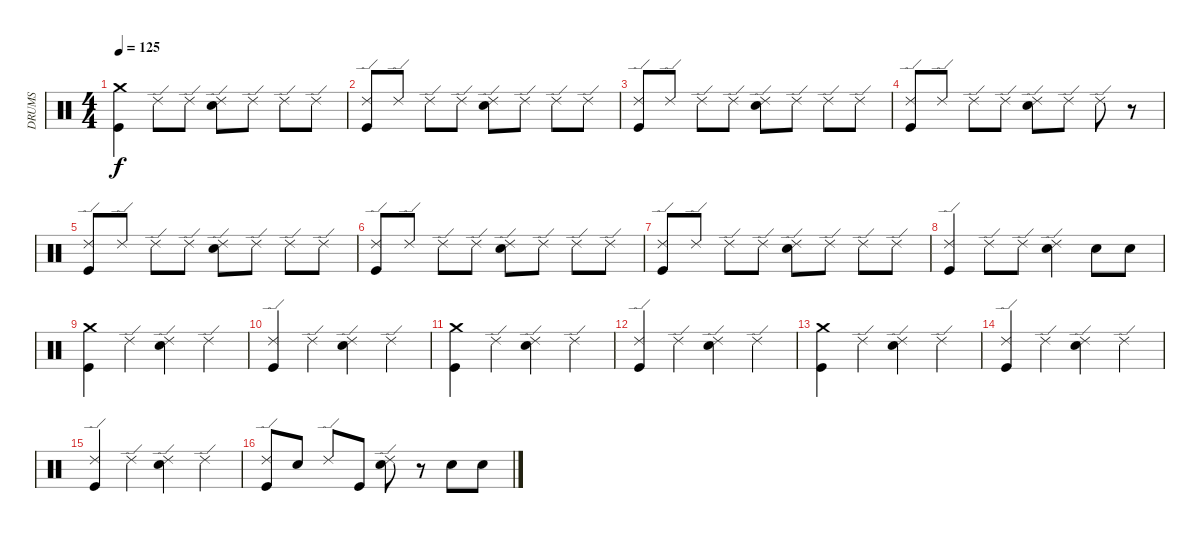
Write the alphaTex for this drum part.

\track ("DRUMS" "DRUMS") {instrument percussion}
\staff {score}
\articulation defaults
\ts (4 4)
\tempo 125
\clef neutral
\ks c
("Crash medium (hit)" "Kick (hit)").4{dy f} "Ride (edge) 2".8 "Ride (edge) 2".8 ("Ride (edge) 2" "Snare (hit) 2").8 "Ride (edge) 2".8 "Ride (edge) 2".8 "Ride (edge) 2".8 |
("Ride (edge) 2" "Kick (hit)").8 "Ride (edge) 2".8 "Ride (edge) 2".8 "Ride (edge) 2".8 ("Ride (edge) 2" "Snare (hit) 2").8 "Ride (edge) 2".8 "Ride (edge) 2".8 "Ride (edge) 2".8 |
("Kick (hit)" "Ride (edge) 2").8 "Ride (edge) 2".8 "Ride (edge) 2".8 "Ride (edge) 2".8 ("Snare (hit) 2" "Ride (edge) 2").8 "Ride (edge) 2".8 "Ride (edge) 2".8 "Ride (edge) 2".8 |
("Ride (edge) 2" "Kick (hit)").8 "Ride (edge) 2".8 "Ride (edge) 2".8 "Ride (edge) 2".8 ("Ride (edge) 2" "Snare (hit) 2").8 "Ride (edge) 2".8 "Ride (edge) 2".8 r.8 |
("Kick (hit)" "Ride (edge) 2").8 "Ride (edge) 2".8 "Ride (edge) 2".8 "Ride (edge) 2".8 ("Snare (hit) 2" "Ride (edge) 2").8 "Ride (edge) 2".8 "Ride (edge) 2".8 "Ride (edge) 2".8 |
("Kick (hit)" "Ride (edge) 2").8 "Ride (edge) 2".8 "Ride (edge) 2".8 "Ride (edge) 2".8 ("Snare (hit) 2" "Ride (edge) 2").8 "Ride (edge) 2".8 "Ride (edge) 2".8 "Ride (edge) 2".8 |
("Kick (hit)" "Ride (edge) 2").8 "Ride (edge) 2".8 "Ride (edge) 2".8 "Ride (edge) 2".8 ("Snare (hit) 2" "Ride (edge) 2").8 "Ride (edge) 2".8 "Ride (edge) 2".8 "Ride (edge) 2".8 |
("Ride (edge) 2" "Kick (hit)").4 "Ride (edge) 2".8 "Ride (edge) 2".8 ("Ride (edge) 2" "Snare (hit) 2").4 "Snare (hit) 2".8 "Snare (hit) 2".8 |
("Crash medium (hit)" "Kick (hit)").4 "Ride (edge) 2".4 ("Snare (hit) 2" "Ride (edge) 2").4 "Ride (edge) 2".4 |
("Ride (edge) 2" "Kick (hit)").4 "Ride (edge) 2".4 ("Ride (edge) 2" "Snare (hit) 2").4 "Ride (edge) 2".4 |
("Crash medium (hit)" "Kick (hit)").4 "Ride (edge) 2".4 ("Snare (hit) 2" "Ride (edge) 2").4 "Ride (edge) 2".4 |
("Ride (edge) 2" "Kick (hit)").4 "Ride (edge) 2".4 ("Ride (edge) 2" "Snare (hit) 2").4 "Ride (edge) 2".4 |
("Crash medium (hit)" "Kick (hit)").4 "Ride (edge) 2".4 ("Snare (hit) 2" "Ride (edge) 2").4 "Ride (edge) 2".4 |
("Ride (edge) 2" "Kick (hit)").4 "Ride (edge) 2".4 ("Ride (edge) 2" "Snare (hit) 2").4 "Ride (edge) 2".4 |
("Ride (edge) 2" "Kick (hit)").4 "Ride (edge) 2".4 ("Ride (edge) 2" "Snare (hit) 2").4 "Ride (edge) 2".4 |
("Ride (edge) 2" "Kick (hit)").8 "Snare (hit) 2".8 "Ride (edge) 2".8 "Kick (hit)".8 ("Ride (edge) 2" "Snare (hit) 2").8 r.8 "Snare (hit) 2".8 "Snare (hit) 2".8
